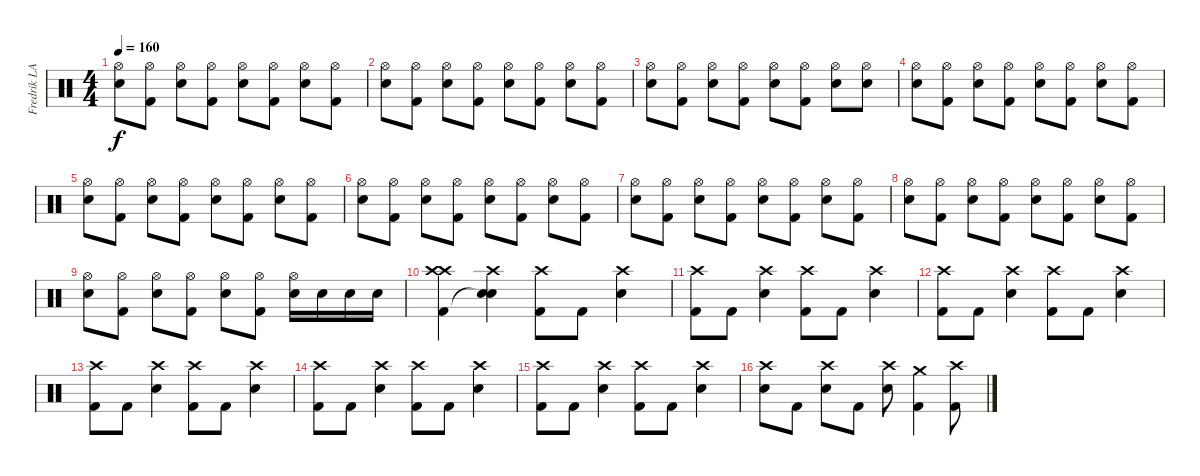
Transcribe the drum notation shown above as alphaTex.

\track ("Fredrik LARZON" "Fredrik LA") {instrument percussion}
\staff {score}
\articulation defaults
\ts (4 4)
\tempo 160
\clef neutral
\ks c
("Hi-Hat (open)" "Electric Snare (hit)").8{dy f} ("Hi-Hat (open)" "Kick (hit) 2").8 ("Hi-Hat (open)" "Electric Snare (hit)").8 ("Hi-Hat (open)" "Kick (hit) 2").8 ("Hi-Hat (open)" "Electric Snare (hit)").8 ("Hi-Hat (open)" "Kick (hit) 2").8 ("Hi-Hat (open)" "Electric Snare (hit)").8 ("Hi-Hat (open)" "Kick (hit) 2").8 |
("Hi-Hat (open)" "Electric Snare (hit)").8 ("Hi-Hat (open)" "Kick (hit) 2").8 ("Hi-Hat (open)" "Electric Snare (hit)").8 ("Hi-Hat (open)" "Kick (hit) 2").8 ("Hi-Hat (open)" "Electric Snare (hit)").8 ("Hi-Hat (open)" "Kick (hit) 2").8 ("Hi-Hat (open)" "Electric Snare (hit)").8 ("Hi-Hat (open)" "Kick (hit) 2").8 |
("Hi-Hat (open)" "Electric Snare (hit)").8 ("Hi-Hat (open)" "Kick (hit) 2").8 ("Hi-Hat (open)" "Electric Snare (hit)").8 ("Hi-Hat (open)" "Kick (hit) 2").8 ("Hi-Hat (open)" "Electric Snare (hit)").8 ("Hi-Hat (open)" "Kick (hit) 2").8 ("Hi-Hat (open)" "Electric Snare (hit)").8 ("Hi-Hat (open)" "Electric Snare (hit)").8 |
("Hi-Hat (open)" "Electric Snare (hit)").8 ("Hi-Hat (open)" "Kick (hit) 2").8 ("Hi-Hat (open)" "Electric Snare (hit)").8 ("Hi-Hat (open)" "Kick (hit) 2").8 ("Hi-Hat (open)" "Electric Snare (hit)").8 ("Hi-Hat (open)" "Kick (hit) 2").8 ("Hi-Hat (open)" "Electric Snare (hit)").8 ("Hi-Hat (open)" "Kick (hit) 2").8 |
("Hi-Hat (open)" "Electric Snare (hit)").8 ("Hi-Hat (open)" "Kick (hit) 2").8 ("Hi-Hat (open)" "Electric Snare (hit)").8 ("Hi-Hat (open)" "Kick (hit) 2").8 ("Hi-Hat (open)" "Electric Snare (hit)").8 ("Hi-Hat (open)" "Kick (hit) 2").8 ("Hi-Hat (open)" "Electric Snare (hit)").8 ("Hi-Hat (open)" "Kick (hit) 2").8 |
("Hi-Hat (open)" "Electric Snare (hit)").8 ("Hi-Hat (open)" "Kick (hit) 2").8 ("Hi-Hat (open)" "Electric Snare (hit)").8 ("Hi-Hat (open)" "Kick (hit) 2").8 ("Hi-Hat (open)" "Electric Snare (hit)").8 ("Hi-Hat (open)" "Kick (hit) 2").8 ("Hi-Hat (open)" "Electric Snare (hit)").8 ("Hi-Hat (open)" "Kick (hit) 2").8 |
("Hi-Hat (open)" "Electric Snare (hit)").8 ("Hi-Hat (open)" "Kick (hit) 2").8 ("Hi-Hat (open)" "Electric Snare (hit)").8 ("Hi-Hat (open)" "Kick (hit) 2").8 ("Hi-Hat (open)" "Electric Snare (hit)").8 ("Hi-Hat (open)" "Kick (hit) 2").8 ("Hi-Hat (open)" "Electric Snare (hit)").8 ("Hi-Hat (open)" "Kick (hit) 2").8 |
("Hi-Hat (open)" "Electric Snare (hit)").8 ("Hi-Hat (open)" "Kick (hit) 2").8 ("Hi-Hat (open)" "Electric Snare (hit)").8 ("Hi-Hat (open)" "Kick (hit) 2").8 ("Hi-Hat (open)" "Electric Snare (hit)").8 ("Hi-Hat (open)" "Kick (hit) 2").8 ("Hi-Hat (open)" "Electric Snare (hit)").8 ("Hi-Hat (open)" "Kick (hit) 2").8 |
("Hi-Hat (open)" "Electric Snare (hit)").8 ("Hi-Hat (open)" "Kick (hit) 2").8 ("Hi-Hat (open)" "Electric Snare (hit)").8 ("Hi-Hat (open)" "Kick (hit) 2").8 ("Hi-Hat (open)" "Electric Snare (hit)").8 ("Hi-Hat (open)" "Kick (hit) 2").8 ("Hi-Hat (open)" "Electric Snare (hit)").16 "Electric Snare (hit)".16 "Electric Snare (hit)".16 "Electric Snare (hit)".16 |
("Crash high (hit)" "Crash high (hit)" "Kick (hit) 2").4 ("Crash high (hit)" "Electric Snare (hit)" "Snare (hit)"{t}).4 ("Crash high (hit)" "Kick (hit) 2").8 "Kick (hit) 2".8 ("Crash high (hit)" "Electric Snare (hit)").4 |
("Crash high (hit)" "Kick (hit) 2").8 "Kick (hit) 2".8 ("Crash high (hit)" "Electric Snare (hit)").4 ("Crash high (hit)" "Kick (hit) 2").8 "Kick (hit) 2".8 ("Crash high (hit)" "Electric Snare (hit)").4 |
("Crash high (hit)" "Kick (hit) 2").8 "Kick (hit) 2".8 ("Crash high (hit)" "Electric Snare (hit)").4 ("Crash high (hit)" "Kick (hit) 2").8 "Kick (hit) 2".8 ("Crash high (hit)" "Electric Snare (hit)").4 |
("Crash high (hit)" "Kick (hit) 2").8 "Kick (hit) 2".8 ("Crash high (hit)" "Electric Snare (hit)").4 ("Crash high (hit)" "Kick (hit) 2").8 "Kick (hit) 2".8 ("Crash high (hit)" "Electric Snare (hit)").4 |
("Crash high (hit)" "Kick (hit) 2").8 "Kick (hit) 2".8 ("Crash high (hit)" "Electric Snare (hit)").4 ("Crash high (hit)" "Kick (hit) 2").8 "Kick (hit) 2".8 ("Crash high (hit)" "Electric Snare (hit)").4 |
("Crash high (hit)" "Kick (hit) 2").8 "Kick (hit) 2".8 ("Crash high (hit)" "Electric Snare (hit)").4 ("Crash high (hit)" "Kick (hit) 2").8 "Kick (hit) 2".8 ("Crash high (hit)" "Electric Snare (hit)").4 |
("Crash high (hit)" "Electric Snare (hit)").8 "Kick (hit) 2".8 ("Crash high (hit)" "Electric Snare (hit)").8 "Kick (hit) 2".8 ("Crash high (hit)" "Electric Snare (hit)").8 ("Crash medium (hit)" "Kick (hit) 2").4 ("Crash high (hit)" "Kick (hit) 2").8
